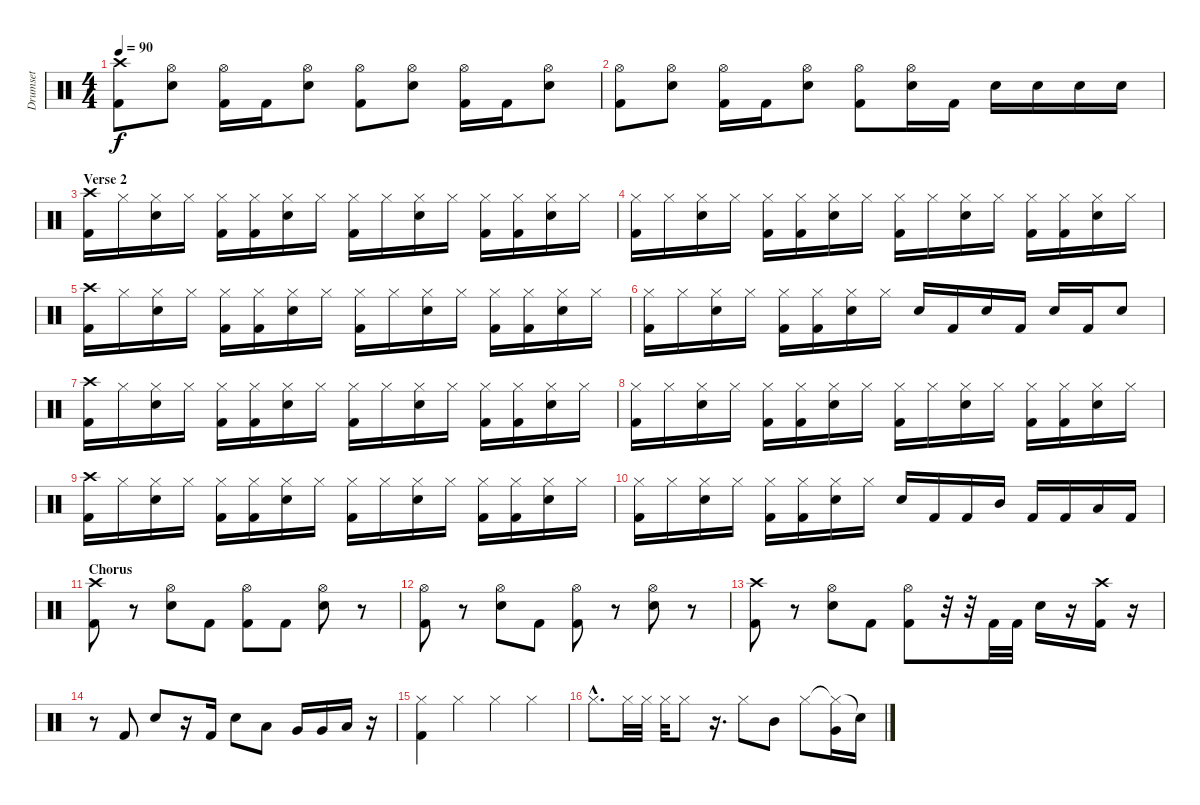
\track ("Drumset" "Drumset") {instrument percussion}
\staff {score}
\articulation defaults
\ts (4 4)
\tempo 90
\clef neutral
\ks c
("Crash high (hit)" "Kick (hit) 2").8{dy f} ("Hi-Hat (open)" "Electric Snare (hit)").8 ("Hi-Hat (open)" "Kick (hit) 2").16 "Kick (hit) 2".16 ("Hi-Hat (open)" "Electric Snare (hit)").8 ("Hi-Hat (open)" "Kick (hit) 2").8 ("Hi-Hat (open)" "Electric Snare (hit)").8 ("Hi-Hat (open)" "Kick (hit) 2").16 "Kick (hit) 2".16 ("Hi-Hat (open)" "Electric Snare (hit)").8 |
("Hi-Hat (open)" "Kick (hit) 2").8 ("Hi-Hat (open)" "Electric Snare (hit)").8 ("Hi-Hat (open)" "Kick (hit) 2").16 "Kick (hit) 2".16 ("Hi-Hat (open)" "Electric Snare (hit)").8 ("Hi-Hat (open)" "Kick (hit) 2").8 ("Hi-Hat (open)" "Electric Snare (hit)").16 "Kick (hit) 2".16 "Electric Snare (hit)".16 "Electric Snare (hit)".16 "Electric Snare (hit)".16 "Electric Snare (hit)".16 |
\section ("" "Verse 2")
("Crash high (hit)" "Kick (hit) 2").16 "Hi-Hat (closed)".16 ("Hi-Hat (closed)" "Electric Snare (hit)").16 "Hi-Hat (closed)".16 ("Hi-Hat (closed)" "Kick (hit) 2").16 ("Hi-Hat (closed)" "Kick (hit) 2").16 ("Hi-Hat (closed)" "Electric Snare (hit)").16 "Hi-Hat (closed)".16 ("Hi-Hat (closed)" "Kick (hit) 2").16 "Hi-Hat (closed)".16 ("Hi-Hat (closed)" "Electric Snare (hit)").16 "Hi-Hat (closed)".16 ("Hi-Hat (closed)" "Kick (hit) 2").16 ("Hi-Hat (closed)" "Kick (hit) 2").16 ("Hi-Hat (closed)" "Electric Snare (hit)").16 "Hi-Hat (closed)".16 |
("Hi-Hat (closed)" "Kick (hit) 2").16 "Hi-Hat (closed)".16 ("Hi-Hat (closed)" "Electric Snare (hit)").16 "Hi-Hat (closed)".16 ("Hi-Hat (closed)" "Kick (hit) 2").16 ("Hi-Hat (closed)" "Kick (hit) 2").16 ("Hi-Hat (closed)" "Electric Snare (hit)").16 "Hi-Hat (closed)".16 ("Hi-Hat (closed)" "Kick (hit) 2").16 "Hi-Hat (closed)".16 ("Hi-Hat (closed)" "Electric Snare (hit)").16 "Hi-Hat (closed)".16 ("Hi-Hat (closed)" "Kick (hit) 2").16 ("Hi-Hat (closed)" "Kick (hit) 2").16 ("Hi-Hat (closed)" "Electric Snare (hit)").16 "Hi-Hat (closed)".16 |
("Crash high (hit)" "Kick (hit) 2").16 "Hi-Hat (closed)".16 ("Hi-Hat (closed)" "Electric Snare (hit)").16 "Hi-Hat (closed)".16 ("Hi-Hat (closed)" "Kick (hit) 2").16 ("Hi-Hat (closed)" "Kick (hit) 2").16 ("Hi-Hat (closed)" "Electric Snare (hit)").16 "Hi-Hat (closed)".16 ("Hi-Hat (closed)" "Kick (hit) 2").16 "Hi-Hat (closed)".16 ("Hi-Hat (closed)" "Electric Snare (hit)").16 "Hi-Hat (closed)".16 ("Hi-Hat (closed)" "Kick (hit) 2").16 ("Hi-Hat (closed)" "Kick (hit) 2").16 ("Hi-Hat (closed)" "Electric Snare (hit)").16 "Hi-Hat (closed)".16 |
("Hi-Hat (closed)" "Kick (hit) 2").16 "Hi-Hat (closed)".16 ("Hi-Hat (closed)" "Electric Snare (hit)").16 "Hi-Hat (closed)".16 ("Hi-Hat (closed)" "Kick (hit) 2").16 ("Hi-Hat (closed)" "Kick (hit) 2").16 ("Hi-Hat (closed)" "Electric Snare (hit)").16 "Hi-Hat (closed)".16 "Electric Snare (hit)".16 "Kick (hit) 2".16 "Electric Snare (hit)".16 "Kick (hit) 2".16 "Electric Snare (hit)".16 "Kick (hit) 2".16 "Electric Snare (hit)".8 |
("Crash high (hit)" "Kick (hit) 2").16 "Hi-Hat (closed)".16 ("Hi-Hat (closed)" "Electric Snare (hit)").16 "Hi-Hat (closed)".16 ("Hi-Hat (closed)" "Kick (hit) 2").16 ("Hi-Hat (closed)" "Kick (hit) 2").16 ("Hi-Hat (closed)" "Electric Snare (hit)").16 "Hi-Hat (closed)".16 ("Hi-Hat (closed)" "Kick (hit) 2").16 "Hi-Hat (closed)".16 ("Hi-Hat (closed)" "Electric Snare (hit)").16 "Hi-Hat (closed)".16 ("Hi-Hat (closed)" "Kick (hit) 2").16 ("Hi-Hat (closed)" "Kick (hit) 2").16 ("Hi-Hat (closed)" "Electric Snare (hit)").16 "Hi-Hat (closed)".16 |
("Hi-Hat (closed)" "Kick (hit) 2").16 "Hi-Hat (closed)".16 ("Hi-Hat (closed)" "Electric Snare (hit)").16 "Hi-Hat (closed)".16 ("Hi-Hat (closed)" "Kick (hit) 2").16 ("Hi-Hat (closed)" "Kick (hit) 2").16 ("Hi-Hat (closed)" "Electric Snare (hit)").16 "Hi-Hat (closed)".16 ("Hi-Hat (closed)" "Kick (hit) 2").16 "Hi-Hat (closed)".16 ("Hi-Hat (closed)" "Electric Snare (hit)").16 "Hi-Hat (closed)".16 ("Hi-Hat (closed)" "Kick (hit) 2").16 ("Hi-Hat (closed)" "Kick (hit) 2").16 ("Hi-Hat (closed)" "Electric Snare (hit)").16 "Hi-Hat (closed)".16 |
("Crash high (hit)" "Kick (hit) 2").16 "Hi-Hat (closed)".16 ("Hi-Hat (closed)" "Electric Snare (hit)").16 "Hi-Hat (closed)".16 ("Hi-Hat (closed)" "Kick (hit) 2").16 ("Hi-Hat (closed)" "Kick (hit) 2").16 ("Hi-Hat (closed)" "Electric Snare (hit)").16 "Hi-Hat (closed)".16 ("Hi-Hat (closed)" "Kick (hit) 2").16 "Hi-Hat (closed)".16 ("Hi-Hat (closed)" "Electric Snare (hit)").16 "Hi-Hat (closed)".16 ("Hi-Hat (closed)" "Kick (hit) 2").16 ("Hi-Hat (closed)" "Kick (hit) 2").16 ("Hi-Hat (closed)" "Electric Snare (hit)").16 "Hi-Hat (closed)".16 |
("Hi-Hat (closed)" "Kick (hit) 2").16 "Hi-Hat (closed)".16 ("Hi-Hat (closed)" "Electric Snare (hit)").16 "Hi-Hat (closed)".16 ("Hi-Hat (closed)" "Kick (hit) 2").16 ("Hi-Hat (closed)" "Kick (hit) 2").16 ("Hi-Hat (closed)" "Electric Snare (hit)").16 "Hi-Hat (closed)".16 "Electric Snare (hit)".16 "Kick (hit) 2".16 "Kick (hit) 2".16 "Mid Tom (hit)".16 "Kick (hit) 2".16 "Kick (hit) 2".16 "Low Tom (hit)".16 "Kick (hit) 2".16 |
\section ("" "Chorus")
("Crash high (hit)" "Kick (hit) 2").8 r.8 ("Hi-Hat (open)" "Electric Snare (hit)").8 "Kick (hit) 2".8 ("Hi-Hat (open)" "Kick (hit) 2").8 "Kick (hit) 2".8 ("Hi-Hat (open)" "Electric Snare (hit)").8 r.8 |
("Hi-Hat (open)" "Kick (hit) 2").8 r.8 ("Hi-Hat (open)" "Electric Snare (hit)").8 "Kick (hit) 2".8 ("Hi-Hat (open)" "Kick (hit) 2").8 r.8 ("Hi-Hat (open)" "Electric Snare (hit)").8 r.8 |
("Crash high (hit)" "Kick (hit) 2").8 r.8 ("Hi-Hat (open)" "Electric Snare (hit)").8 "Kick (hit) 2".8 ("Hi-Hat (open)" "Kick (hit) 2").8 r.32 r.32 "Kick (hit) 2".32 "Kick (hit) 2".32 "Electric Snare (hit)".16 r.16 ("Crash high (hit)" "Kick (hit) 2").16 r.16 |
r.8 "Kick (hit) 2".8 "Electric Snare (hit)".8 r.16 "Kick (hit) 2".16 "Electric Snare (hit)".8 "Low Tom (hit)".8 "Very Low Tom (hit)".16 "Very Low Tom (hit)".16 "Low Floor Tom (hit)".16 r.16 |
("Hi-Hat (closed)" "Kick (hit) 2").4 "Hi-Hat (closed)".4 "Hi-Hat (closed)".4 "Hi-Hat (closed)".4 |
"Hi-Hat (closed)"{hac}.8{d} "Hi-Hat (closed)".32 "Hi-Hat (closed)".32 "Hi-Hat (closed)".32 "Hi-Hat (closed)".8 r.16{d} "Hi-Hat (closed)".8 "Mid Tom (hit)".8 "Hi-Hat (closed)".8 ("Hi-Hat (closed)"{t} "Very Low Tom (hit)").16 "Snare (hit)"{t}.16
